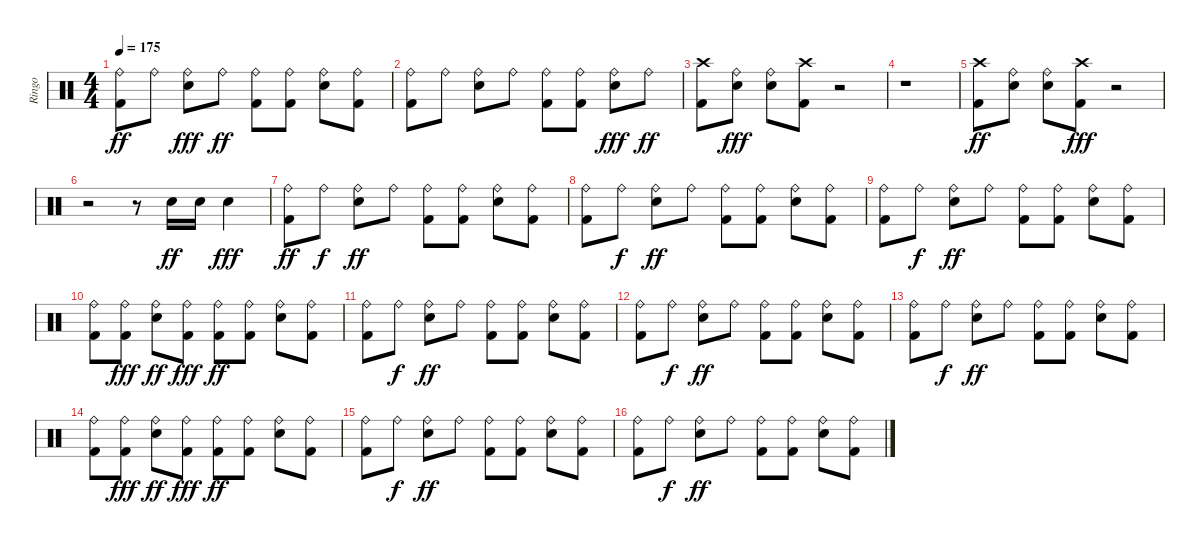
\track ("Ringo" "Ringo") {instrument percussion}
\staff {score}
\articulation defaults
\ts (4 4)
\tempo 175
\clef neutral
\ks c
("Kick (hit) 2" "Ride (bell)").8{dy ff} "Ride (bell)".8 ("Ride (bell)" "Snare (hit) 2").8{dy fff} "Ride (bell)".8{dy ff} ("Kick (hit) 2" "Ride (bell)").8 ("Kick (hit) 2" "Ride (bell)").8 ("Snare (hit) 2" "Ride (bell)").8 ("Ride (bell)" "Kick (hit) 2").8 |
("Kick (hit) 2" "Ride (bell)").8 "Ride (bell)".8 ("Snare (hit) 2" "Ride (bell)").8 "Ride (bell)".8 ("Kick (hit) 2" "Ride (bell)").8 ("Kick (hit) 2" "Ride (bell)").8 ("Snare (hit) 2" "Ride (bell)").8{dy fff} "Ride (bell)".8{dy ff} |
("Kick (hit) 2" "Crash high (hit)").8 ("Ride (bell)" "Snare (hit) 2").8{dy fff} ("Snare (hit) 2" "Ride (bell)").8 ("Crash high (hit)" "Kick (hit) 2").8 r.2 |
r.1 |
("Kick (hit) 2" "Crash high (hit)").8{dy ff} ("Snare (hit) 2" "Ride (bell)").8 ("Snare (hit) 2" "Ride (bell)").8 ("Crash high (hit)" "Kick (hit) 2").8{dy fff} r.2 |
r.2 r.8 "Snare (hit) 2".16{dy ff} "Snare (hit) 2".16 "Snare (hit) 2".4{dy fff} |
("Kick (hit) 2" "Ride (bell)").8{dy ff} "Ride (bell)".8{dy f} ("Snare (hit) 2" "Ride (bell)").8{dy ff} "Ride (bell)".8 ("Kick (hit) 2" "Ride (bell)").8 ("Ride (bell)" "Kick (hit) 2").8 ("Snare (hit) 2" "Ride (bell)").8 ("Ride (bell)" "Kick (hit) 2").8 |
("Kick (hit) 2" "Ride (bell)").8 "Ride (bell)".8{dy f} ("Snare (hit) 2" "Ride (bell)").8{dy ff} "Ride (bell)".8 ("Kick (hit) 2" "Ride (bell)").8 ("Ride (bell)" "Kick (hit) 2").8 ("Snare (hit) 2" "Ride (bell)").8 ("Ride (bell)" "Kick (hit) 2").8 |
("Kick (hit) 2" "Ride (bell)").8 "Ride (bell)".8{dy f} ("Snare (hit) 2" "Ride (bell)").8{dy ff} "Ride (bell)".8 ("Kick (hit) 2" "Ride (bell)").8 ("Ride (bell)" "Kick (hit) 2").8 ("Snare (hit) 2" "Ride (bell)").8 ("Ride (bell)" "Kick (hit) 2").8 |
("Ride (bell)" "Kick (hit) 2").8 ("Ride (bell)" "Kick (hit) 2").8{dy fff} ("Snare (hit) 2" "Ride (bell)").8{dy ff} ("Ride (bell)" "Kick (hit) 2").8{dy fff} ("Kick (hit) 2" "Ride (bell)").8{dy ff} ("Ride (bell)" "Kick (hit) 2").8 ("Snare (hit) 2" "Ride (bell)").8 ("Ride (bell)" "Kick (hit) 2").8 |
("Kick (hit) 2" "Ride (bell)").8 "Ride (bell)".8{dy f} ("Snare (hit) 2" "Ride (bell)").8{dy ff} "Ride (bell)".8 ("Kick (hit) 2" "Ride (bell)").8 ("Ride (bell)" "Kick (hit) 2").8 ("Snare (hit) 2" "Ride (bell)").8 ("Ride (bell)" "Kick (hit) 2").8 |
("Kick (hit) 2" "Ride (bell)").8 "Ride (bell)".8{dy f} ("Snare (hit) 2" "Ride (bell)").8{dy ff} "Ride (bell)".8 ("Kick (hit) 2" "Ride (bell)").8 ("Ride (bell)" "Kick (hit) 2").8 ("Snare (hit) 2" "Ride (bell)").8 ("Ride (bell)" "Kick (hit) 2").8 |
("Kick (hit) 2" "Ride (bell)").8 "Ride (bell)".8{dy f} ("Snare (hit) 2" "Ride (bell)").8{dy ff} "Ride (bell)".8 ("Kick (hit) 2" "Ride (bell)").8 ("Ride (bell)" "Kick (hit) 2").8 ("Snare (hit) 2" "Ride (bell)").8 ("Ride (bell)" "Kick (hit) 2").8 |
("Ride (bell)" "Kick (hit) 2").8 ("Ride (bell)" "Kick (hit) 2").8{dy fff} ("Snare (hit) 2" "Ride (bell)").8{dy ff} ("Ride (bell)" "Kick (hit) 2").8{dy fff} ("Kick (hit) 2" "Ride (bell)").8{dy ff} ("Ride (bell)" "Kick (hit) 2").8 ("Snare (hit) 2" "Ride (bell)").8 ("Ride (bell)" "Kick (hit) 2").8 |
("Kick (hit) 2" "Ride (bell)").8 "Ride (bell)".8{dy f} ("Snare (hit) 2" "Ride (bell)").8{dy ff} "Ride (bell)".8 ("Kick (hit) 2" "Ride (bell)").8 ("Ride (bell)" "Kick (hit) 2").8 ("Snare (hit) 2" "Ride (bell)").8 ("Ride (bell)" "Kick (hit) 2").8 |
("Kick (hit) 2" "Ride (bell)").8 "Ride (bell)".8{dy f} ("Snare (hit) 2" "Ride (bell)").8{dy ff} "Ride (bell)".8 ("Kick (hit) 2" "Ride (bell)").8 ("Ride (bell)" "Kick (hit) 2").8 ("Snare (hit) 2" "Ride (bell)").8 ("Ride (bell)" "Kick (hit) 2").8
